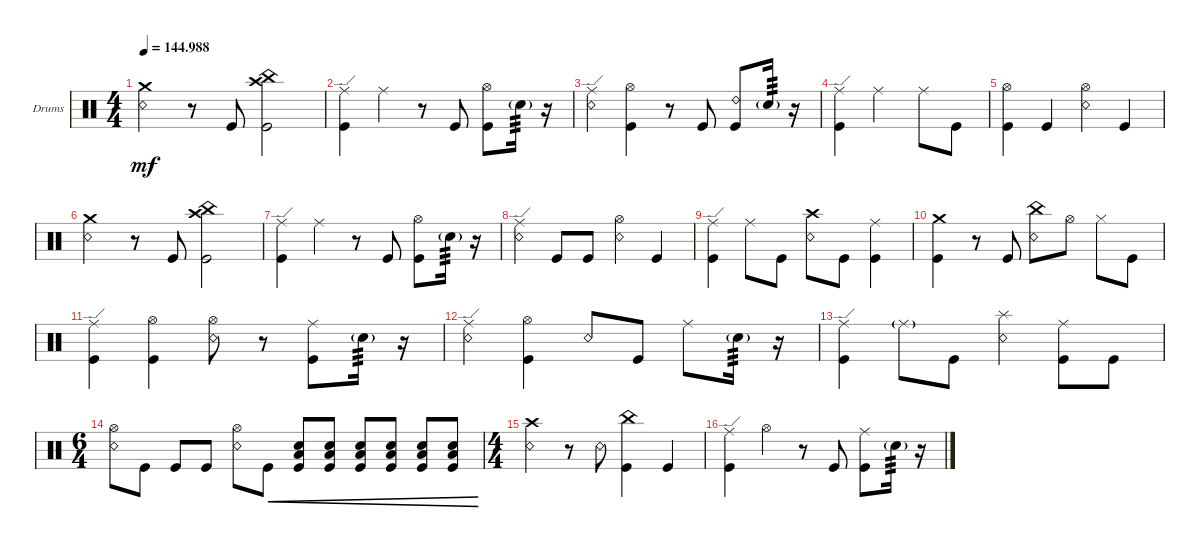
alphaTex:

\defaultSystemsLayout 4
\bracketExtendMode groupsimilarinstruments
\firstSystemTrackNameOrientation horizontal
\otherSystemsTrackNameOrientation horizontal
\track ("Drumkit" "Drums") {instrument percussion}
\staff {score}
\articulation defaults
\ts (4 4)
\tempo
144.988
\accidentals auto
\clef neutral
\ottava regular
\simile none
\ks c
("Snare (rim shot)" "Crash medium (hit)").4{dy mf} r.8 "Kick (hit)".8 ("Kick (hit)" "China (hit)" "Crash high (hit)").2 |
("Kick (hit)" "Ride (edge)").4 "Ride (middle)".4 r.8 "Kick (hit)".8 ("Kick (hit)" "Hi-Hat (open)").8 "Snare (hit) 2"{g}.16{tp 3} r.16 |
("Ride (edge)" "Snare (rim shot)").4 ("Hi-Hat (open)" "Kick (hit)").4 r.8 "Kick (hit)".8 ("Kick (hit)" "Ride (bell) 2").8 "Snare (hit) 2"{g}.16{tp 3} r.16 |
("Kick (hit)" "Ride (edge)").4 "Ride (middle)".2 "Ride (middle)".8 "Kick (hit)".8 |
("Kick (hit)" "Hi-Hat (open)").4 "Kick (hit)".4 ("Snare (rim shot)" "Hi-Hat (open)").4 "Kick (hit)".4 |
("Snare (rim shot)" "Crash medium (hit)").4 r.8 "Kick (hit)".8 ("Kick (hit)" "China (hit)" "Crash high (hit)").2 |
("Kick (hit)" "Ride (edge)").4 "Ride (middle)".4 r.8 "Kick (hit)".8 ("Kick (hit)" "Hi-Hat (open)").8 "Snare (hit) 2"{g}.16{tp 3} r.16 |
("Snare (rim shot)" "Ride (edge)").4 "Kick (hit)".8 "Kick (hit)".8 ("Snare (rim shot)" "Hi-Hat (open)").4 "Kick (hit)".4 |
("Kick (hit)" "Ride (edge)").4 "Ride (middle)".8 "Kick (hit)".8 ("Snare (rim shot)" "Crash high (hit)").8 "Kick (hit)".8 ("Ride (middle)" "Kick (hit)").4 |
("Kick (hit)" "Crash medium (hit)").4 r.8 "Kick (hit)".8 ("China (hit)" "Snare (rim shot)").8 "Hi-Hat (open)".8 "Hi-Hat (closed)".8 "Kick (hit)".8 |
("Kick (hit)" "Ride (edge)").4 ("Hi-Hat (open)" "Kick (hit)").4 ("Snare (rim shot)" "Hi-Hat (open)").8 r.8 ("Ride (middle)" "Kick (hit)").8 "Snare (hit) 2"{g}.16{tp 3} r.16 |
("Ride (edge)" "Snare (rim shot)").4 ("Hi-Hat (open)" "Kick (hit)").4 "Snare (rim shot)".8 "Kick (hit)".8 "Ride (middle)".8 "Snare (hit) 2"{g}.16{tp 3} r.16 |
("Kick (hit)" "Ride (edge)").4 "Ride (middle)"{g}.8 "Kick (hit)".8 ("Snare (rim shot)" "Splash (hit)").4 ("Ride (middle)" "Kick (hit)").8 "Kick (hit)".8 |
\ts (6 4)
("Hi-Hat (open)" "Snare (rim shot)").8 "Kick (hit)".8 "Kick (hit)".8 "Kick (hit)".8 ("Snare (rim shot)" "Hi-Hat (open)").8 "Kick (hit)".8{cre} ("Kick (hit)" "Low Tom (hit)" "Snare (hit) 2").8{cre} ("Kick (hit)" "Low Tom (hit)" "Snare (hit) 2").8{cre} ("Kick (hit)" "Low Tom (hit)" "Snare (hit) 2").8{cre} ("Kick (hit)" "Low Tom (hit)" "Snare (hit) 2").8{cre} ("Kick (hit)" "Snare (hit) 2" "Low Tom (hit)").8{cre} ("Kick (hit)" "Low Tom (hit)" "Snare (hit) 2").8{cre} |
\ts (4 4)
("Snare (rim shot)" "Crash high (hit)").4 r.8 "Snare (rim shot)".8 ("Kick (hit)" "China (hit)").4 "Kick (hit)".4 |
("Kick (hit)" "Ride (edge)").4 "Hi-Hat (open)".4 r.8 "Kick (hit)".8 ("Ride (middle)" "Kick (hit)").8 "Snare (hit) 2"{g}.16{tp 3} r.16
